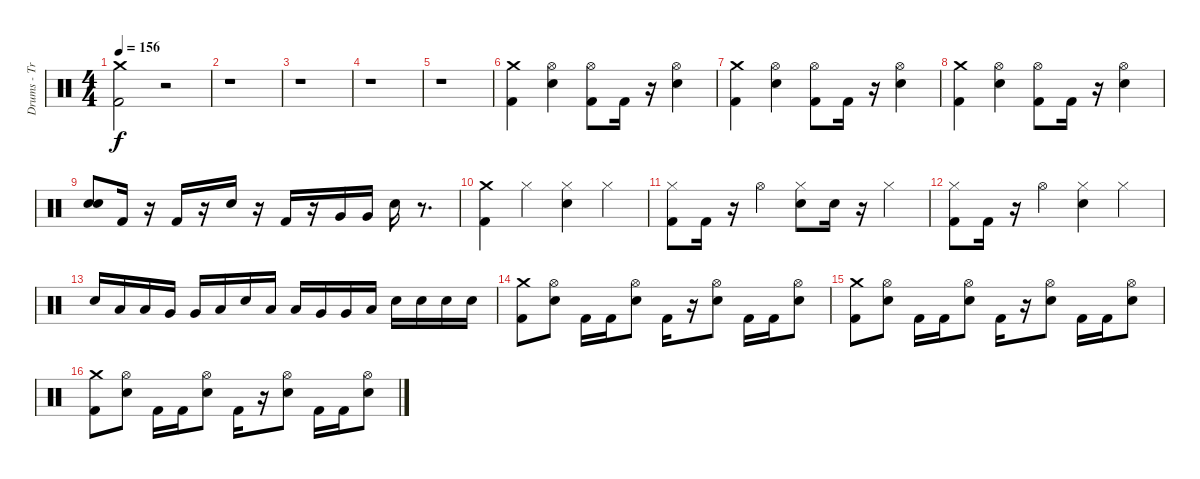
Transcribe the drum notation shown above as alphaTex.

\track ("Drums - Travis Barker" "Drums - Tr") {instrument percussion}
\staff {score}
\articulation defaults
\ts (4 4)
\tempo 156
\clef neutral
\ks c
("Crash medium (hit)" "Kick (hit) 2").2{dy f} r.2 |
r.1 |
r.1 |
r.1 |
r.1 |
("Crash medium (hit)" "Kick (hit) 2").4 ("Hi-Hat (open)" "Electric Snare (hit)").4 ("Hi-Hat (open)" "Kick (hit) 2").8 "Kick (hit) 2".16 r.16 ("Hi-Hat (open)" "Electric Snare (hit)").4 |
("Crash medium (hit)" "Kick (hit) 2").4 ("Hi-Hat (open)" "Electric Snare (hit)").4 ("Hi-Hat (open)" "Kick (hit) 2").8 "Kick (hit) 2".16 r.16 ("Hi-Hat (open)" "Electric Snare (hit)").4 |
("Crash medium (hit)" "Kick (hit) 2").4 ("Hi-Hat (open)" "Electric Snare (hit)").4 ("Hi-Hat (open)" "Kick (hit) 2").8 "Kick (hit) 2".16 r.16 ("Hi-Hat (open)" "Electric Snare (hit)").4 |
("Electric Snare (hit)" "Electric Snare (hit)").8 "Kick (hit) 2".16 r.16 "Kick (hit) 2".16 r.16 "Electric Snare (hit)".16 r.16 "Kick (hit) 2".16 r.16 "Very Low Tom (hit)".16 "Very Low Tom (hit)".16 "Electric Snare (hit)".16 r.8{d} |
("Crash medium (hit)" "Kick (hit) 2").4 "Hi-Hat (closed)".4 ("Hi-Hat (closed)" "Electric Snare (hit)").4 "Hi-Hat (closed)".4 |
("Hi-Hat (closed)" "Kick (hit) 2").8 "Kick (hit) 2".16 r.16 "Hi-Hat (open)".4 ("Hi-Hat (closed)" "Electric Snare (hit)").8 "Electric Snare (hit)".16 r.16 "Hi-Hat (closed)".4 |
("Hi-Hat (closed)" "Kick (hit) 2").8 "Kick (hit) 2".16 r.16 "Hi-Hat (open)".4 ("Hi-Hat (closed)" "Electric Snare (hit)").4 "Hi-Hat (closed)".4 |
"Electric Snare (hit)".16 "Low Tom (hit)".16 "Low Tom (hit)".16 "Very Low Tom (hit)".16 "Very Low Tom (hit)".16 "Low Floor Tom (hit)".16 "Electric Snare (hit)".16 "Low Tom (hit)".16 "Low Tom (hit)".16 "Very Low Tom (hit)".16 "Very Low Tom (hit)".16 "Low Floor Tom (hit)".16 "Electric Snare (hit)".16 "Electric Snare (hit)".16 "Electric Snare (hit)".16 "Electric Snare (hit)".16 |
("Crash medium (hit)" "Kick (hit) 2").8 ("Hi-Hat (open)" "Electric Snare (hit)").8 "Kick (hit) 2".16 "Kick (hit) 2".16 ("Hi-Hat (open)" "Electric Snare (hit)").8 "Kick (hit) 2".16 r.16 ("Hi-Hat (open)" "Electric Snare (hit)").8 "Kick (hit) 2".16 "Kick (hit) 2".16 ("Hi-Hat (open)" "Electric Snare (hit)").8 |
("Crash medium (hit)" "Kick (hit) 2").8 ("Hi-Hat (open)" "Electric Snare (hit)").8 "Kick (hit) 2".16 "Kick (hit) 2".16 ("Hi-Hat (open)" "Electric Snare (hit)").8 "Kick (hit) 2".16 r.16 ("Hi-Hat (open)" "Electric Snare (hit)").8 "Kick (hit) 2".16 "Kick (hit) 2".16 ("Hi-Hat (open)" "Electric Snare (hit)").8 |
("Crash medium (hit)" "Kick (hit) 2").8 ("Hi-Hat (open)" "Electric Snare (hit)").8 "Kick (hit) 2".16 "Kick (hit) 2".16 ("Hi-Hat (open)" "Electric Snare (hit)").8 "Kick (hit) 2".16 r.16 ("Hi-Hat (open)" "Electric Snare (hit)").8 "Kick (hit) 2".16 "Kick (hit) 2".16 ("Hi-Hat (open)" "Electric Snare (hit)").8
